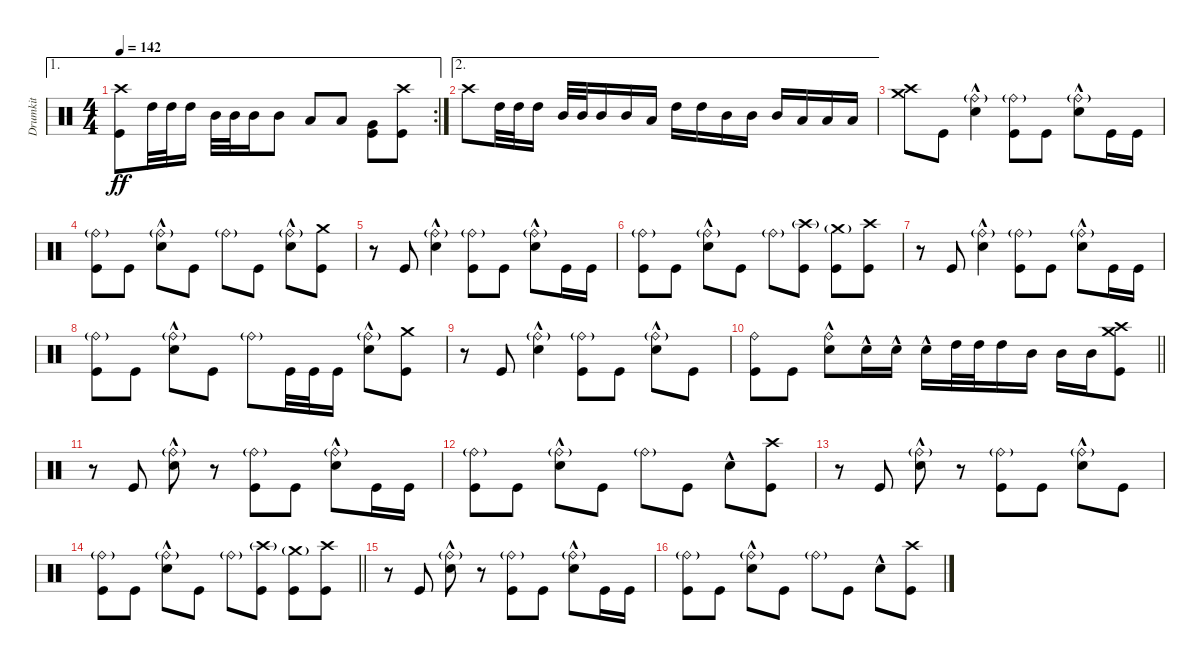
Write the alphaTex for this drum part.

\track ("Drumkit" "Drumkit") {instrument percussion}
\staff {score}
\articulation defaults
\ae 1
\rc 2
\ts (4 4)
\tempo 142
\clef neutral
\ks c
("Crash high (hit)" "Kick (hit)").8{dy ff} "High Tom (hit)".32 "High Tom (hit)".32 "High Tom (hit)".16 "Mid Tom (hit)".32 "Mid Tom (hit)".32 "Mid Tom (hit)".16 "Mid Tom (hit)".8 "Low Tom (hit)".8 "Low Tom (hit)".8 ("Very Low Tom (hit)" "Kick (hit)").8 ("Kick (hit)" "Crash high (hit)").8 |
\ae 2 "Crash high (hit)".8 "High Tom (hit)".32 "High Tom (hit)".32 "High Tom (hit)".16 "Mid Tom (hit)".32 "Mid Tom (hit)".32 "Mid Tom (hit)".16 "Mid Tom (hit)".16 "Low Tom (hit)".16 "High Tom (hit)".16 "High Tom (hit)".16 "Mid Tom (hit)".16 "Mid Tom (hit)".16 "Mid Tom (hit)".16 "Low Tom (hit)".16 "Low Tom (hit)".16 "Low Tom (hit)".16
|
("Crash high (hit)" "Crash medium (hit)").8 "Kick (hit)".8 ("Snare (hit) 2"{hac} "Ride (bell)"{g}).4 ("Kick (hit)" "Ride (bell)"{g}).8 "Kick (hit)".8 ("Snare (hit) 2"{hac} "Ride (bell)"{g}).8 "Kick (hit)".16 "Kick (hit)".16 |
("Ride (bell)"{g} "Kick (hit)").8 "Kick (hit)".8 ("Snare (hit) 2"{hac} "Ride (bell)"{g}).8 "Kick (hit)".8 "Ride (bell)"{g}.8 "Kick (hit)".8 ("Snare (hit) 2"{hac} "Ride (bell)"{g}).8 ("Kick (hit)" "Crash medium (hit)").8 |
r.8 "Kick (hit)".8 ("Snare (hit) 2"{hac} "Ride (bell)"{g}).4 ("Kick (hit)" "Ride (bell)"{g}).8 "Kick (hit)".8 ("Snare (hit) 2"{hac} "Ride (bell)"{g}).8 "Kick (hit)".16 "Kick (hit)".16 |
("Ride (bell)"{g} "Kick (hit)").8 "Kick (hit)".8 ("Snare (hit) 2"{hac} "Ride (bell)"{g}).8 "Kick (hit)".8 "Ride (bell)"{g}.8 ("Kick (hit)" "Crash high (hit)"{g}).8 ("Kick (hit)" "Crash medium (hit)"{g}).8 ("Kick (hit)" "Crash high (hit)").8 |
r.8 "Kick (hit)".8 ("Snare (hit) 2"{hac} "Ride (bell)"{g}).4 ("Kick (hit)" "Ride (bell)"{g}).8 "Kick (hit)".8 ("Snare (hit) 2"{hac} "Ride (bell)"{g}).8 "Kick (hit)".16 "Kick (hit)".16 |
("Ride (bell)"{g} "Kick (hit)").8 "Kick (hit)".8 ("Snare (hit) 2"{hac} "Ride (bell)"{g}).8 "Kick (hit)".8 "Ride (bell)"{g}.8 "Kick (hit)".32 "Kick (hit)".32 "Kick (hit)".16 ("Snare (hit) 2"{hac} "Ride (bell)"{g}).8 ("Kick (hit)" "Crash medium (hit)").8 |
r.8 "Kick (hit)".8 ("Snare (hit) 2"{hac} "Ride (bell)"{g}).4 ("Kick (hit)" "Ride (bell)"{g}).8 "Kick (hit)".8 ("Snare (hit) 2"{hac} "Ride (bell)"{g}).8 "Kick (hit)".8 |
\barLineRight lightlight
("Kick (hit)" "Ride (bell)").8 "Kick (hit)".8 ("Snare (hit) 2"{hac} "Ride (bell)").8 "Snare (hit) 2"{hac}.16 "Snare (hit) 2"{hac}.16 "Snare (hit) 2"{hac}.16 "High Tom (hit)".32 "High Tom (hit)".32 "High Tom (hit)".16 "Mid Tom (hit)".16 "Mid Tom (hit)".16 "Mid Tom (hit)".16 ("Kick (hit)" "Crash high (hit)" "Crash medium (hit)").8 |
r.8 "Kick (hit)".8 ("Snare (hit) 2"{hac} "Ride (bell)"{g}).8 r.8 ("Kick (hit)" "Ride (bell)"{g}).8 "Kick (hit)".8 ("Snare (hit) 2"{hac} "Ride (bell)"{g}).8 "Kick (hit)".16 "Kick (hit)".16 |
("Ride (bell)"{g} "Kick (hit)").8 "Kick (hit)".8 ("Snare (hit) 2"{hac} "Ride (bell)"{g}).8 "Kick (hit)".8 "Ride (bell)"{g}.8 "Kick (hit)".8 "Snare (hit) 2"{hac}.8 ("Kick (hit)" "Crash high (hit)").8 |
r.8 "Kick (hit)".8 ("Snare (hit) 2"{hac} "Ride (bell)"{g}).8 r.8 ("Kick (hit)" "Ride (bell)"{g}).8 "Kick (hit)".8 ("Snare (hit) 2"{hac} "Ride (bell)"{g}).8 "Kick (hit)".8 |
\barLineRight lightlight
("Ride (bell)"{g} "Kick (hit)").8 "Kick (hit)".8 ("Snare (hit) 2"{hac} "Ride (bell)"{g}).8 "Kick (hit)".8 "Ride (bell)"{g}.8 ("Kick (hit)" "Crash high (hit)"{g}).8 ("Kick (hit)" "Crash medium (hit)"{g}).8 ("Kick (hit)" "Crash high (hit)").8 |
r.8 "Kick (hit)".8 ("Snare (hit) 2"{hac} "Ride (bell)"{g}).8 r.8 ("Kick (hit)" "Ride (bell)"{g}).8 "Kick (hit)".8 ("Snare (hit) 2"{hac} "Ride (bell)"{g}).8 "Kick (hit)".16 "Kick (hit)".16 |
("Ride (bell)"{g} "Kick (hit)").8 "Kick (hit)".8 ("Snare (hit) 2"{hac} "Ride (bell)"{g}).8 "Kick (hit)".8 "Ride (bell)"{g}.8 "Kick (hit)".8 "Snare (hit) 2"{hac}.8 ("Kick (hit)" "Crash high (hit)").8
